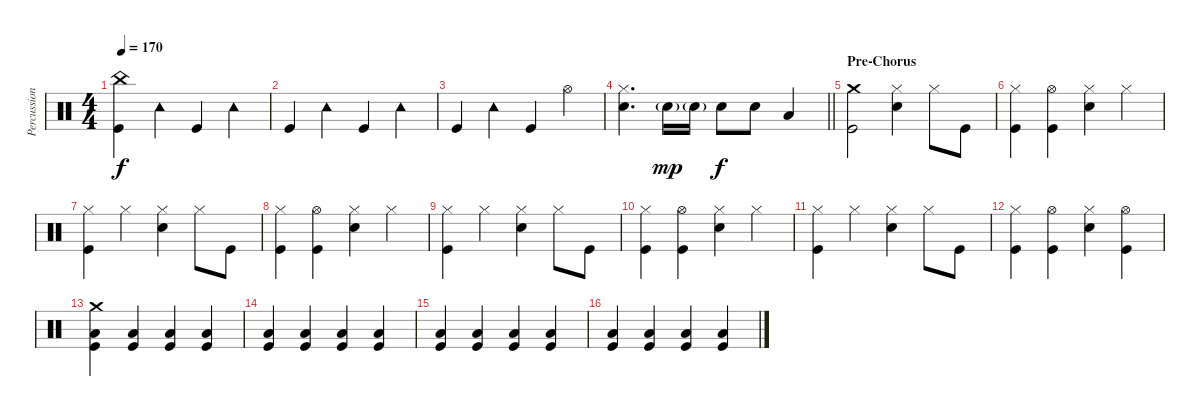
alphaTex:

\track ("Percussion" "Percussion") {instrument percussion}
\staff {score}
\articulation defaults
\ts (4 4)
\tempo 170
\clef neutral
\ks c
("China (hit)" "Kick (hit)").4{dy f} "Tambourine (hit)".4 "Kick (hit)".4 "Tambourine (hit)".4 |
"Kick (hit)".4 "Tambourine (hit)".4 "Kick (hit)".4 "Tambourine (hit)".4 |
"Kick (hit)".4 "Tambourine (hit)".4 "Kick (hit)".4 "Hi-Hat (open)".4 |
\barLineRight lightlight
("Hi-Hat (closed)" "Electric Snare (hit)").4{d} "Electric Snare (hit)"{g}.16{dy mp} "Electric Snare (hit)"{g}.16 "Electric Snare (hit)".8{dy f} "Electric Snare (hit)".8 "Low Tom (hit)".4 |
\section ("" "Pre-Chorus")
("Crash medium (hit)" "Kick (hit)").2 ("Hi-Hat (closed)" "Electric Snare (hit)").4 "Hi-Hat (closed)".8 "Kick (hit)".8 |
("Hi-Hat (closed)" "Kick (hit)").4 ("Hi-Hat (open)" "Kick (hit)").4 ("Hi-Hat (closed)" "Electric Snare (hit)").4 "Hi-Hat (closed)".4 |
("Hi-Hat (closed)" "Kick (hit)").4 "Hi-Hat (closed)".4 ("Hi-Hat (closed)" "Electric Snare (hit)").4 "Hi-Hat (closed)".8 "Kick (hit)".8 |
("Hi-Hat (closed)" "Kick (hit)").4 ("Hi-Hat (open)" "Kick (hit)").4 ("Hi-Hat (closed)" "Electric Snare (hit)").4 "Hi-Hat (closed)".4 |
("Hi-Hat (closed)" "Kick (hit)").4 "Hi-Hat (closed)".4 ("Hi-Hat (closed)" "Electric Snare (hit)").4 "Hi-Hat (closed)".8 "Kick (hit)".8 |
("Hi-Hat (closed)" "Kick (hit)").4 ("Hi-Hat (open)" "Kick (hit)").4 ("Hi-Hat (closed)" "Electric Snare (hit)").4 "Hi-Hat (closed)".4 |
("Hi-Hat (closed)" "Kick (hit)").4 "Hi-Hat (closed)".4 ("Hi-Hat (closed)" "Electric Snare (hit)").4 "Hi-Hat (closed)".8 "Kick (hit)".8 |
("Hi-Hat (closed)" "Kick (hit)").4 ("Hi-Hat (open)" "Kick (hit)").4 ("Hi-Hat (closed)" "Electric Snare (hit)").4 ("Hi-Hat (open)" "Kick (hit)").4 |
("Crash medium (hit)" "Low Tom (hit)" "Kick (hit)").4 ("Low Tom (hit)" "Kick (hit)").4 ("Low Tom (hit)" "Kick (hit)").4 ("Low Tom (hit)" "Kick (hit)").4 |
("Low Tom (hit)" "Kick (hit)").4 ("Low Tom (hit)" "Kick (hit)").4 ("Low Tom (hit)" "Kick (hit)").4 ("Low Tom (hit)" "Kick (hit)").4 |
("Low Tom (hit)" "Kick (hit)").4 ("Low Tom (hit)" "Kick (hit)").4 ("Low Tom (hit)" "Kick (hit)").4 ("Low Tom (hit)" "Kick (hit)").4 |
("Low Tom (hit)" "Kick (hit)").4 ("Low Tom (hit)" "Kick (hit)").4 ("Low Tom (hit)" "Kick (hit)").4 ("Low Tom (hit)" "Kick (hit)").4
